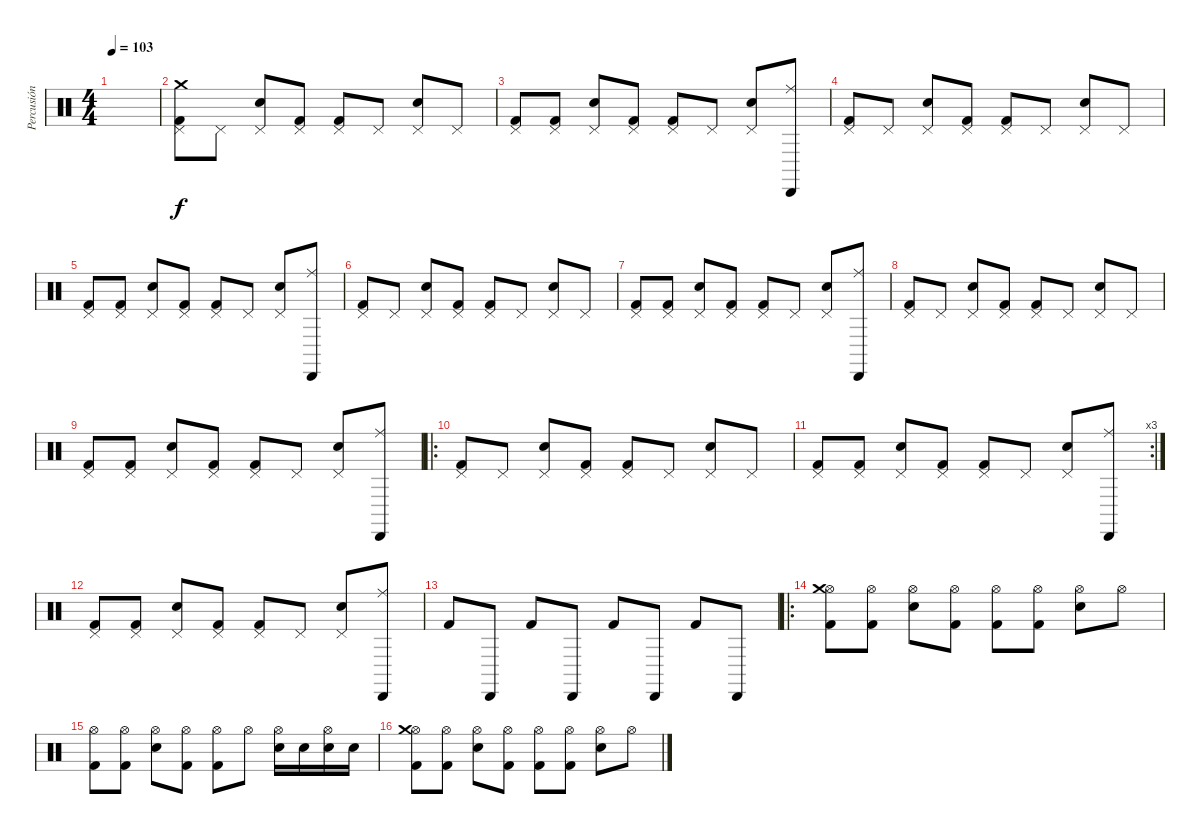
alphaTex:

\track ("Percusión" "Percusión") {instrument percussion}
\staff {score}
\articulation defaults
\ts (4 4)
\tempo 103
\clef neutral
\ks c
|
("Pedal Hi-Hat (hit)" "Kick (hit) 2" "Crash medium (hit)").8 "Pedal Hi-Hat (hit)".8 ("Pedal Hi-Hat (hit)" "Electric Snare (hit)").8 ("Pedal Hi-Hat (hit)" "Kick (hit) 2").8 ("Pedal Hi-Hat (hit)" "Kick (hit) 2").8 "Pedal Hi-Hat (hit)".8 ("Pedal Hi-Hat (hit)" "Electric Snare (hit)").8 "Pedal Hi-Hat (hit)".8 |
("Pedal Hi-Hat (hit)" "Kick (hit) 2").8 ("Pedal Hi-Hat (hit)" "Kick (hit) 2").8 ("Pedal Hi-Hat (hit)" "Electric Snare (hit)").8 ("Pedal Hi-Hat (hit)" "Kick (hit) 2").8 ("Pedal Hi-Hat (hit)" "Kick (hit) 2").8 "Pedal Hi-Hat (hit)".8 ("Pedal Hi-Hat (hit)" "Electric Snare (hit)").8 ("Cabasa (hit)" "Ride (middle)").8 |
("Pedal Hi-Hat (hit)" "Kick (hit) 2").8 "Pedal Hi-Hat (hit)".8 ("Pedal Hi-Hat (hit)" "Electric Snare (hit)").8 ("Pedal Hi-Hat (hit)" "Kick (hit) 2").8 ("Pedal Hi-Hat (hit)" "Kick (hit) 2").8 "Pedal Hi-Hat (hit)".8 ("Pedal Hi-Hat (hit)" "Electric Snare (hit)").8 "Pedal Hi-Hat (hit)".8 |
("Pedal Hi-Hat (hit)" "Kick (hit) 2").8 ("Pedal Hi-Hat (hit)" "Kick (hit) 2").8 ("Pedal Hi-Hat (hit)" "Electric Snare (hit)").8 ("Pedal Hi-Hat (hit)" "Kick (hit) 2").8 ("Pedal Hi-Hat (hit)" "Kick (hit) 2").8 "Pedal Hi-Hat (hit)".8 ("Pedal Hi-Hat (hit)" "Electric Snare (hit)").8 ("Cabasa (hit)" "Ride (middle)").8 |
("Pedal Hi-Hat (hit)" "Kick (hit) 2").8 "Pedal Hi-Hat (hit)".8 ("Pedal Hi-Hat (hit)" "Electric Snare (hit)").8 ("Pedal Hi-Hat (hit)" "Kick (hit) 2").8 ("Pedal Hi-Hat (hit)" "Kick (hit) 2").8 "Pedal Hi-Hat (hit)".8 ("Pedal Hi-Hat (hit)" "Electric Snare (hit)").8 "Pedal Hi-Hat (hit)".8 |
("Pedal Hi-Hat (hit)" "Kick (hit) 2").8 ("Pedal Hi-Hat (hit)" "Kick (hit) 2").8 ("Pedal Hi-Hat (hit)" "Electric Snare (hit)").8 ("Pedal Hi-Hat (hit)" "Kick (hit) 2").8 ("Pedal Hi-Hat (hit)" "Kick (hit) 2").8 "Pedal Hi-Hat (hit)".8 ("Pedal Hi-Hat (hit)" "Electric Snare (hit)").8 ("Cabasa (hit)" "Ride (middle)").8 |
("Pedal Hi-Hat (hit)" "Kick (hit) 2").8 "Pedal Hi-Hat (hit)".8 ("Pedal Hi-Hat (hit)" "Electric Snare (hit)").8 ("Pedal Hi-Hat (hit)" "Kick (hit) 2").8 ("Pedal Hi-Hat (hit)" "Kick (hit) 2").8 "Pedal Hi-Hat (hit)".8 ("Pedal Hi-Hat (hit)" "Electric Snare (hit)").8 "Pedal Hi-Hat (hit)".8 |
("Pedal Hi-Hat (hit)" "Kick (hit) 2").8 ("Pedal Hi-Hat (hit)" "Kick (hit) 2").8 ("Pedal Hi-Hat (hit)" "Electric Snare (hit)").8 ("Pedal Hi-Hat (hit)" "Kick (hit) 2").8 ("Pedal Hi-Hat (hit)" "Kick (hit) 2").8 "Pedal Hi-Hat (hit)".8 ("Pedal Hi-Hat (hit)" "Electric Snare (hit)").8 ("Cabasa (hit)" "Ride (middle)").8 |
\ro
("Pedal Hi-Hat (hit)" "Kick (hit) 2").8 "Pedal Hi-Hat (hit)".8 ("Pedal Hi-Hat (hit)" "Electric Snare (hit)").8 ("Pedal Hi-Hat (hit)" "Kick (hit) 2").8 ("Pedal Hi-Hat (hit)" "Kick (hit) 2").8 "Pedal Hi-Hat (hit)".8 ("Pedal Hi-Hat (hit)" "Electric Snare (hit)").8 "Pedal Hi-Hat (hit)".8 |
\rc 3
("Pedal Hi-Hat (hit)" "Kick (hit) 2").8 ("Pedal Hi-Hat (hit)" "Kick (hit) 2").8 ("Pedal Hi-Hat (hit)" "Electric Snare (hit)").8 ("Pedal Hi-Hat (hit)" "Kick (hit) 2").8 ("Pedal Hi-Hat (hit)" "Kick (hit) 2").8 "Pedal Hi-Hat (hit)".8 ("Pedal Hi-Hat (hit)" "Electric Snare (hit)").8 ("Cabasa (hit)" "Ride (middle)").8 |
("Pedal Hi-Hat (hit)" "Kick (hit) 2").8 ("Pedal Hi-Hat (hit)" "Kick (hit) 2").8 ("Pedal Hi-Hat (hit)" "Electric Snare (hit)").8 ("Pedal Hi-Hat (hit)" "Kick (hit) 2").8 ("Pedal Hi-Hat (hit)" "Kick (hit) 2").8 "Pedal Hi-Hat (hit)".8 ("Pedal Hi-Hat (hit)" "Electric Snare (hit)").8 ("Cabasa (hit)" "Ride (middle)").8 |
"Kick (hit) 2".8 "Cabasa (hit)".8 "Kick (hit) 2".8 "Cabasa (hit)".8 "Kick (hit) 2".8 "Cabasa (hit)".8 "Kick (hit) 2".8 "Cabasa (hit)".8 |
\ro
("Hi-Hat (open)" "Kick (hit) 2" "Crash medium (hit)").8 ("Hi-Hat (open)" "Kick (hit) 2").8 ("Hi-Hat (open)" "Electric Snare (hit)").8 ("Hi-Hat (open)" "Kick (hit) 2").8 ("Hi-Hat (open)" "Kick (hit) 2").8 ("Hi-Hat (open)" "Kick (hit) 2").8 ("Hi-Hat (open)" "Electric Snare (hit)").8 "Hi-Hat (open)".8 |
("Hi-Hat (open)" "Kick (hit) 2").8 ("Hi-Hat (open)" "Kick (hit) 2").8 ("Hi-Hat (open)" "Electric Snare (hit)").8 ("Hi-Hat (open)" "Kick (hit) 2").8 ("Hi-Hat (open)" "Kick (hit) 2").8 "Hi-Hat (open)".8 ("Hi-Hat (open)" "Electric Snare (hit)").16 "Electric Snare (hit)".16 ("Hi-Hat (open)" "Electric Snare (hit)").16 "Electric Snare (hit)".16 |
("Hi-Hat (open)" "Kick (hit) 2" "Crash medium (hit)").8 ("Hi-Hat (open)" "Kick (hit) 2").8 ("Hi-Hat (open)" "Electric Snare (hit)").8 ("Hi-Hat (open)" "Kick (hit) 2").8 ("Hi-Hat (open)" "Kick (hit) 2").8 ("Hi-Hat (open)" "Kick (hit) 2").8 ("Hi-Hat (open)" "Electric Snare (hit)").8 "Hi-Hat (open)".8
